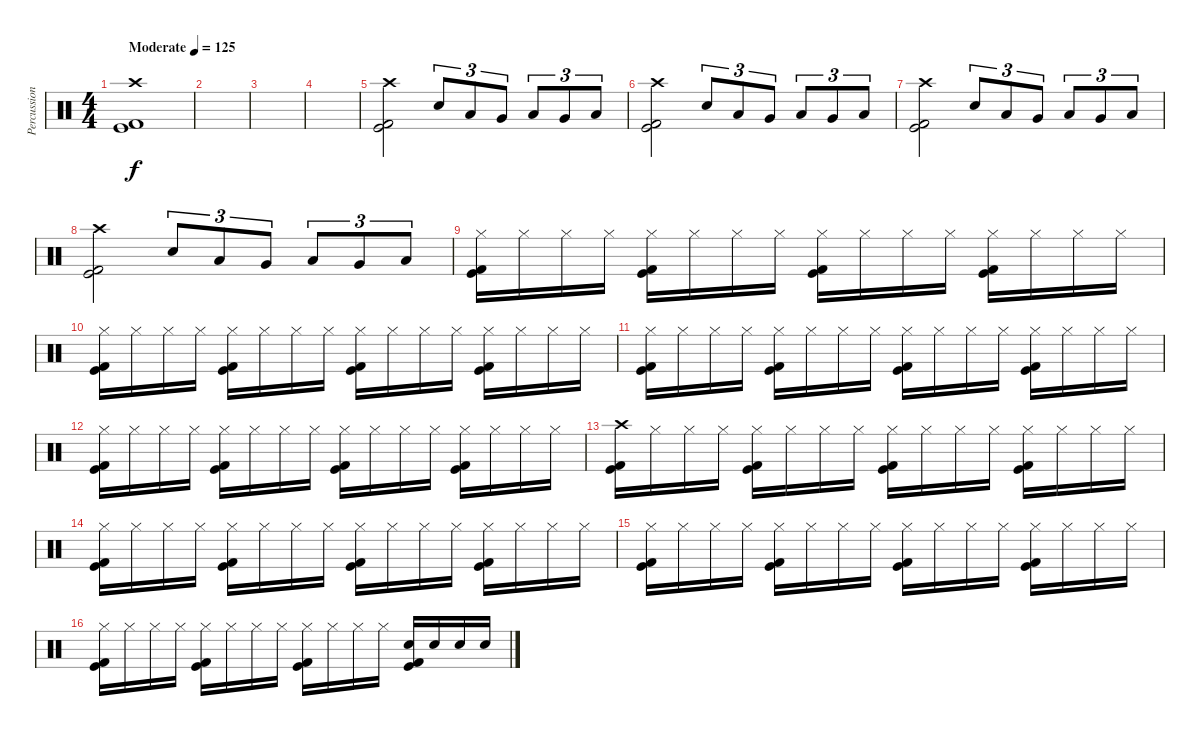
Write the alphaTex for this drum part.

\track ("Percussion" "Percussion") {instrument percussion}
\staff {score}
\articulation defaults
\ts (4 4)
\tempo (125 "Moderate")
\clef neutral
\ks c
("Crash high (hit)" "Kick (hit) 2" "Kick (hit)").1{dy f} |
|
|
|
("Crash high (hit)" "Kick (hit)" "Kick (hit) 2").2 "Electric Snare (hit)".8{tu (3 2)} "Low Tom (hit)".8{tu (3 2)} "Very Low Tom (hit)".8{tu (3 2)} "Low Tom (hit)".8{tu (3 2)} "Very Low Tom (hit)".8{tu (3 2)} "Low Floor Tom (hit)".8{tu (3 2)} |
("Crash high (hit)" "Kick (hit)" "Kick (hit) 2").2 "Electric Snare (hit)".8{tu (3 2)} "Low Tom (hit)".8{tu (3 2)} "Very Low Tom (hit)".8{tu (3 2)} "Low Tom (hit)".8{tu (3 2)} "Very Low Tom (hit)".8{tu (3 2)} "Low Floor Tom (hit)".8{tu (3 2)} |
("Crash high (hit)" "Kick (hit)" "Kick (hit) 2").2 "Electric Snare (hit)".8{tu (3 2)} "Low Tom (hit)".8{tu (3 2)} "Very Low Tom (hit)".8{tu (3 2)} "Low Tom (hit)".8{tu (3 2)} "Very Low Tom (hit)".8{tu (3 2)} "Low Floor Tom (hit)".8{tu (3 2)} |
("Crash high (hit)" "Kick (hit)" "Kick (hit) 2").2 "Electric Snare (hit)".8{tu (3 2)} "Low Tom (hit)".8{tu (3 2)} "Very Low Tom (hit)".8{tu (3 2)} "Low Tom (hit)".8{tu (3 2)} "Very Low Tom (hit)".8{tu (3 2)} "Low Floor Tom (hit)".8{tu (3 2)} |
("Hi-Hat (closed)" "Kick (hit) 2" "Kick (hit)").16 "Hi-Hat (closed)".16 "Hi-Hat (closed)".16 "Hi-Hat (closed)".16 ("Hi-Hat (closed)" "Kick (hit) 2" "Kick (hit)").16 "Hi-Hat (closed)".16 "Hi-Hat (closed)".16 "Hi-Hat (closed)".16 ("Hi-Hat (closed)" "Kick (hit) 2" "Kick (hit)").16 "Hi-Hat (closed)".16 "Hi-Hat (closed)".16 "Hi-Hat (closed)".16 ("Hi-Hat (closed)" "Kick (hit) 2" "Kick (hit)").16 "Hi-Hat (closed)".16 "Hi-Hat (closed)".16 "Hi-Hat (closed)".16 |
("Hi-Hat (closed)" "Kick (hit) 2" "Kick (hit)").16 "Hi-Hat (closed)".16 "Hi-Hat (closed)".16 "Hi-Hat (closed)".16 ("Hi-Hat (closed)" "Kick (hit) 2" "Kick (hit)").16 "Hi-Hat (closed)".16 "Hi-Hat (closed)".16 "Hi-Hat (closed)".16 ("Hi-Hat (closed)" "Kick (hit) 2" "Kick (hit)").16 "Hi-Hat (closed)".16 "Hi-Hat (closed)".16 "Hi-Hat (closed)".16 ("Hi-Hat (closed)" "Kick (hit) 2" "Kick (hit)").16 "Hi-Hat (closed)".16 "Hi-Hat (closed)".16 "Hi-Hat (closed)".16 |
("Hi-Hat (closed)" "Kick (hit) 2" "Kick (hit)").16 "Hi-Hat (closed)".16 "Hi-Hat (closed)".16 "Hi-Hat (closed)".16 ("Hi-Hat (closed)" "Kick (hit) 2" "Kick (hit)").16 "Hi-Hat (closed)".16 "Hi-Hat (closed)".16 "Hi-Hat (closed)".16 ("Hi-Hat (closed)" "Kick (hit) 2" "Kick (hit)").16 "Hi-Hat (closed)".16 "Hi-Hat (closed)".16 "Hi-Hat (closed)".16 ("Hi-Hat (closed)" "Kick (hit) 2" "Kick (hit)").16 "Hi-Hat (closed)".16 "Hi-Hat (closed)".16 "Hi-Hat (closed)".16 |
("Hi-Hat (closed)" "Kick (hit) 2" "Kick (hit)").16 "Hi-Hat (closed)".16 "Hi-Hat (closed)".16 "Hi-Hat (closed)".16 ("Hi-Hat (closed)" "Kick (hit) 2" "Kick (hit)").16 "Hi-Hat (closed)".16 "Hi-Hat (closed)".16 "Hi-Hat (closed)".16 ("Hi-Hat (closed)" "Kick (hit) 2" "Kick (hit)").16 "Hi-Hat (closed)".16 "Hi-Hat (closed)".16 "Hi-Hat (closed)".16 ("Hi-Hat (closed)" "Kick (hit) 2" "Kick (hit)").16 "Hi-Hat (closed)".16 "Hi-Hat (closed)".16 "Hi-Hat (closed)".16 |
("Crash high (hit)" "Kick (hit) 2" "Kick (hit)").16 "Hi-Hat (closed)".16 "Hi-Hat (closed)".16 "Hi-Hat (closed)".16 ("Hi-Hat (closed)" "Kick (hit) 2" "Kick (hit)").16 "Hi-Hat (closed)".16 "Hi-Hat (closed)".16 "Hi-Hat (closed)".16 ("Hi-Hat (closed)" "Kick (hit) 2" "Kick (hit)").16 "Hi-Hat (closed)".16 "Hi-Hat (closed)".16 "Hi-Hat (closed)".16 ("Hi-Hat (closed)" "Kick (hit) 2" "Kick (hit)").16 "Hi-Hat (closed)".16 "Hi-Hat (closed)".16 "Hi-Hat (closed)".16 |
("Hi-Hat (closed)" "Kick (hit) 2" "Kick (hit)").16 "Hi-Hat (closed)".16 "Hi-Hat (closed)".16 "Hi-Hat (closed)".16 ("Hi-Hat (closed)" "Kick (hit) 2" "Kick (hit)").16 "Hi-Hat (closed)".16 "Hi-Hat (closed)".16 "Hi-Hat (closed)".16 ("Hi-Hat (closed)" "Kick (hit) 2" "Kick (hit)").16 "Hi-Hat (closed)".16 "Hi-Hat (closed)".16 "Hi-Hat (closed)".16 ("Hi-Hat (closed)" "Kick (hit) 2" "Kick (hit)").16 "Hi-Hat (closed)".16 "Hi-Hat (closed)".16 "Hi-Hat (closed)".16 |
("Hi-Hat (closed)" "Kick (hit) 2" "Kick (hit)").16 "Hi-Hat (closed)".16 "Hi-Hat (closed)".16 "Hi-Hat (closed)".16 ("Hi-Hat (closed)" "Kick (hit) 2" "Kick (hit)").16 "Hi-Hat (closed)".16 "Hi-Hat (closed)".16 "Hi-Hat (closed)".16 ("Hi-Hat (closed)" "Kick (hit) 2" "Kick (hit)").16 "Hi-Hat (closed)".16 "Hi-Hat (closed)".16 "Hi-Hat (closed)".16 ("Hi-Hat (closed)" "Kick (hit) 2" "Kick (hit)").16 "Hi-Hat (closed)".16 "Hi-Hat (closed)".16 "Hi-Hat (closed)".16 |
("Hi-Hat (closed)" "Kick (hit) 2" "Kick (hit)").16 "Hi-Hat (closed)".16 "Hi-Hat (closed)".16 "Hi-Hat (closed)".16 ("Hi-Hat (closed)" "Kick (hit) 2" "Kick (hit)").16 "Hi-Hat (closed)".16 "Hi-Hat (closed)".16 "Hi-Hat (closed)".16 ("Hi-Hat (closed)" "Kick (hit) 2" "Kick (hit)").16 "Hi-Hat (closed)".16 "Hi-Hat (closed)".16 "Hi-Hat (closed)".16 ("Electric Snare (hit)" "Kick (hit) 2" "Kick (hit)").16 "Electric Snare (hit)".16 "Electric Snare (hit)".16 "Electric Snare (hit)".16
